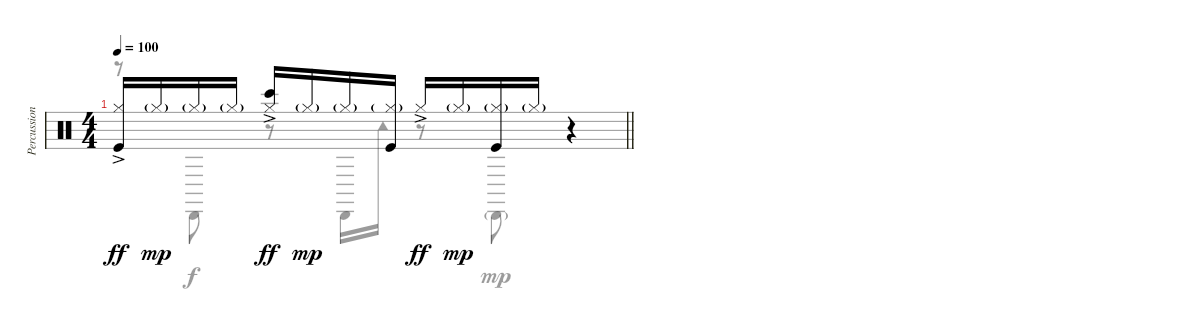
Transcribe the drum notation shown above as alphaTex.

\track ("Percussions" "Percussion") {instrument percussion}
\staff {score}
\articulation defaults
\voice
\ts (4 4)
\tempo 100
\clef neutral
\barLineRight lightlight
\ks c
("Kick (hit)" "Hi-Hat (closed)"{ac}).16{dy ff} "Hi-Hat (closed)"{g}.16{dy mp} "Hi-Hat (closed)"{g}.16 "Hi-Hat (closed)"{g}.16 ("Bongo High (hit)" "Hi-Hat (closed)"{ac}).16{dy ff} "Hi-Hat (closed)"{g}.16{dy mp} "Hi-Hat (closed)"{g}.16 ("Kick (hit)" "Hi-Hat (closed)"{g}).16 "Hi-Hat (closed)"{ac}.16{dy ff} "Hi-Hat (closed)"{g}.16{dy mp} ("Kick (hit)" "Hi-Hat (closed)"{g}).16 "Hi-Hat (closed)"{g}.16 r.4
\voice
\clef neutral
\ottava regular
\simile none
\barLineRight lightlight
\ks c
r.8{dy ff} "Cabasa (hit)".8{dy f} r.8 "Cabasa (hit)".16 "Tambourine (hit)".16 r.8 "Cabasa (hit)"{g}.8{dy mp} r.4
